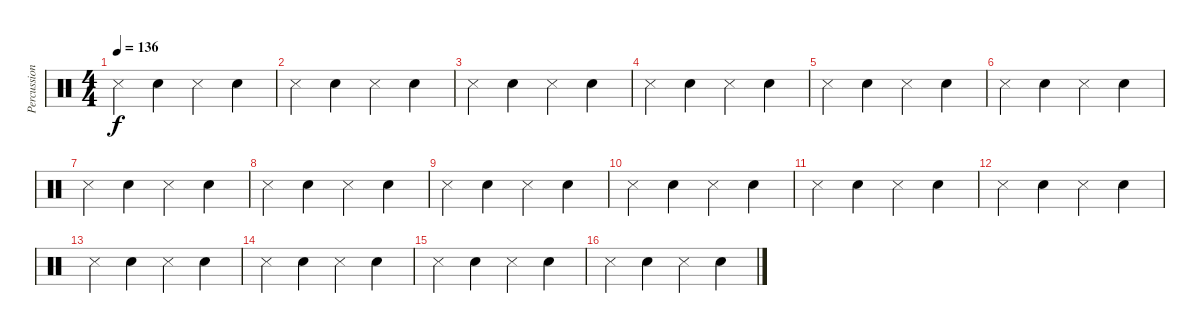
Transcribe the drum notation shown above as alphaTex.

\track ("Percussions" "Percussion") {instrument percussion}
\staff {score}
\articulation defaults
\ts (4 4)
\tempo 136
\clef neutral
\ks c "Snare (side stick) 3".4{dy f} "Electric Snare (hit)".4 "Snare (side stick) 3".4 "Electric Snare (hit)".4
|
"Snare (side stick) 3".4 "Electric Snare (hit)".4 "Snare (side stick) 3".4 "Electric Snare (hit)".4 |
"Snare (side stick) 3".4 "Electric Snare (hit)".4 "Snare (side stick) 3".4 "Electric Snare (hit)".4 |
"Snare (side stick) 3".4 "Electric Snare (hit)".4 "Snare (side stick) 3".4 "Electric Snare (hit)".4 |
"Snare (side stick) 3".4 "Electric Snare (hit)".4 "Snare (side stick) 3".4 "Electric Snare (hit)".4 |
"Snare (side stick) 3".4 "Electric Snare (hit)".4 "Snare (side stick) 3".4 "Electric Snare (hit)".4 |
"Snare (side stick) 3".4 "Electric Snare (hit)".4 "Snare (side stick) 3".4 "Electric Snare (hit)".4 |
"Snare (side stick) 3".4 "Electric Snare (hit)".4 "Snare (side stick) 3".4 "Electric Snare (hit)".4 |
"Snare (side stick) 3".4 "Electric Snare (hit)".4 "Snare (side stick) 3".4 "Electric Snare (hit)".4 |
"Snare (side stick) 3".4 "Electric Snare (hit)".4 "Snare (side stick) 3".4 "Electric Snare (hit)".4 |
"Snare (side stick) 3".4 "Electric Snare (hit)".4 "Snare (side stick) 3".4 "Electric Snare (hit)".4 |
"Snare (side stick) 3".4 "Electric Snare (hit)".4 "Snare (side stick) 3".4 "Electric Snare (hit)".4 |
"Snare (side stick) 3".4 "Electric Snare (hit)".4 "Snare (side stick) 3".4 "Electric Snare (hit)".4 |
"Snare (side stick) 3".4 "Electric Snare (hit)".4 "Snare (side stick) 3".4 "Electric Snare (hit)".4 |
"Snare (side stick) 3".4 "Electric Snare (hit)".4 "Snare (side stick) 3".4 "Electric Snare (hit)".4 |
"Snare (side stick) 3".4 "Electric Snare (hit)".4 "Snare (side stick) 3".4 "Electric Snare (hit)".4
